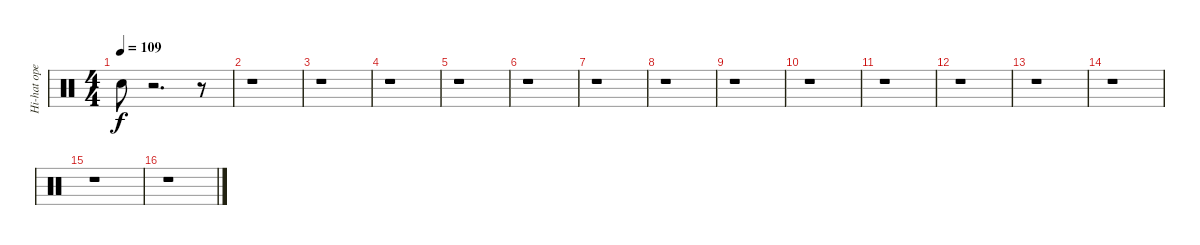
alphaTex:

\track ("Hi-hat open" "Hi-hat ope") {instrument percussion}
\staff {score}
\articulation defaults
\ts (4 4)
\tempo 109
\clef neutral
\ks c "Snare (hit)"{t}.8{dy f}
r.2{d} r.8 |
r.1 |
r.1 |
r.1 |
r.1 |
r.1 |
r.1 |
r.1 |
r.1 |
r.1 |
r.1 |
r.1 |
r.1 |
r.1 |
r.1 |
r.1
